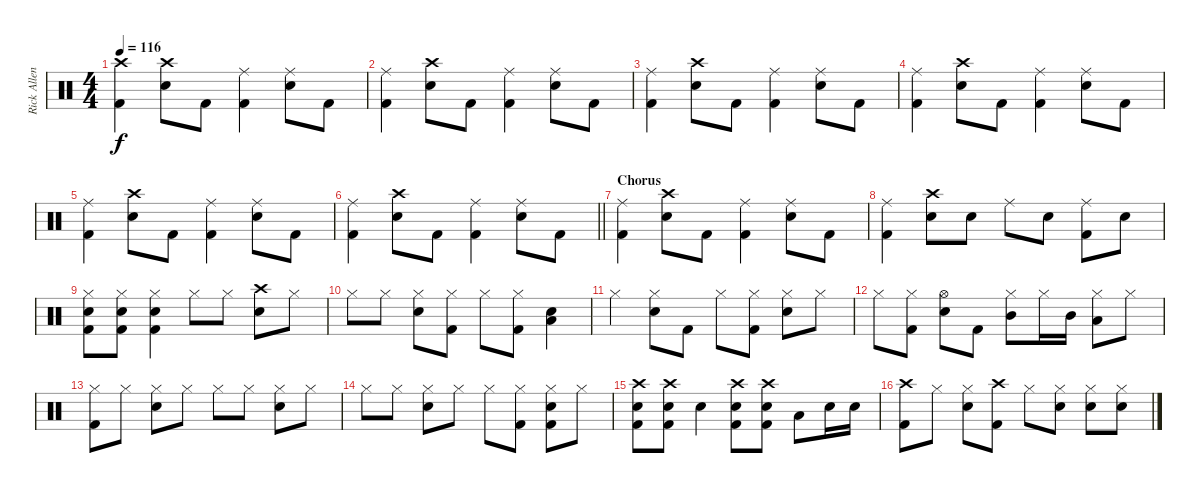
\track ("Rick Allen" "Rick Allen") {instrument percussion}
\staff {score}
\articulation defaults
\ts (4 4)
\tempo 116
\clef neutral
\ks c
("Crash high (hit)" "Kick (hit) 2").4{dy f} ("Crash high (hit)" "Electric Snare (hit)").8 "Kick (hit) 2".8 ("Ride (middle)" "Kick (hit) 2").4 ("Ride (middle)" "Electric Snare (hit)").8 "Kick (hit) 2".8 |
("Ride (middle)" "Kick (hit) 2").4 ("Crash high (hit)" "Electric Snare (hit)").8 "Kick (hit) 2".8 ("Ride (middle)" "Kick (hit) 2").4 ("Ride (middle)" "Electric Snare (hit)").8 "Kick (hit) 2".8 |
("Ride (middle)" "Kick (hit) 2").4 ("Crash high (hit)" "Electric Snare (hit)").8 "Kick (hit) 2".8 ("Ride (middle)" "Kick (hit) 2").4 ("Ride (middle)" "Electric Snare (hit)").8 "Kick (hit) 2".8 |
("Ride (middle)" "Kick (hit) 2").4 ("Crash high (hit)" "Electric Snare (hit)").8 "Kick (hit) 2".8 ("Ride (middle)" "Kick (hit) 2").4 ("Ride (middle)" "Electric Snare (hit)").8 "Kick (hit) 2".8 |
("Ride (middle)" "Kick (hit) 2").4 ("Crash high (hit)" "Electric Snare (hit)").8 "Kick (hit) 2".8 ("Ride (middle)" "Kick (hit) 2").4 ("Ride (middle)" "Electric Snare (hit)").8 "Kick (hit) 2".8 |
\barLineRight lightlight
("Ride (middle)" "Kick (hit) 2").4 ("Crash high (hit)" "Electric Snare (hit)").8 "Kick (hit) 2".8 ("Ride (middle)" "Kick (hit) 2").4 ("Ride (middle)" "Electric Snare (hit)").8 "Kick (hit) 2".8 |
\section ("" "Chorus")
("Ride (middle)" "Kick (hit) 2").4 ("Crash high (hit)" "Electric Snare (hit)").8 "Kick (hit) 2".8 ("Ride (middle)" "Kick (hit) 2").4 ("Ride (middle)" "Electric Snare (hit)").8 "Kick (hit) 2".8 |
("Ride (middle)" "Kick (hit) 2").4 ("Crash high (hit)" "Electric Snare (hit)").8 "Electric Snare (hit)".8 "Ride (middle)".8 "Electric Snare (hit)".8 ("Ride (middle)" "Kick (hit) 2").8 "Electric Snare (hit)".8 |
("Hi-Hat (closed)" "Electric Snare (hit)" "Kick (hit) 2").8 ("Hi-Hat (closed)" "Electric Snare (hit)" "Kick (hit) 2").8 ("Hi-Hat (closed)" "Electric Snare (hit)" "Kick (hit) 2").4 "Hi-Hat (closed)".8 "Hi-Hat (closed)".8 ("Crash high (hit)" "Electric Snare (hit)").8 "Hi-Hat (closed)".8 |
"Hi-Hat (closed)".8 "Hi-Hat (closed)".8 ("Hi-Hat (closed)" "Electric Snare (hit)").8 ("Hi-Hat (closed)" "Kick (hit) 2").8 "Hi-Hat (closed)".8 ("Hi-Hat (closed)" "Kick (hit) 2").8 ("Low Tom (hit)" "Electric Snare (hit)").4 |
"Hi-Hat (closed)".4 ("Hi-Hat (closed)" "Electric Snare (hit)").8 "Kick (hit) 2".8 "Hi-Hat (closed)".8 ("Hi-Hat (closed)" "Kick (hit) 2").8 ("Hi-Hat (closed)" "Electric Snare (hit)").8 "Hi-Hat (closed)".8 |
"Hi-Hat (closed)".8 ("Hi-Hat (closed)" "Kick (hit) 2").8 ("Hi-Hat (open)" "Electric Snare (hit)").8 "Kick (hit) 2".8 ("Hi-Hat (closed)" "Mid Tom (hit)").8 "Hi-Hat (closed)".16 "Mid Tom (hit)".16 ("Hi-Hat (closed)" "Low Tom (hit)").8 "Hi-Hat (closed)".8 |
("Hi-Hat (closed)" "Kick (hit) 2").8 "Hi-Hat (closed)".8 ("Hi-Hat (closed)" "Electric Snare (hit)").8 "Hi-Hat (closed)".8 "Hi-Hat (closed)".8 "Hi-Hat (closed)".8 ("Hi-Hat (closed)" "Electric Snare (hit)").8 "Hi-Hat (closed)".8 |
"Hi-Hat (closed)".8 "Hi-Hat (closed)".8 ("Hi-Hat (closed)" "Electric Snare (hit)").8 "Hi-Hat (closed)".8 "Hi-Hat (closed)".8 ("Hi-Hat (closed)" "Kick (hit) 2").8 ("Hi-Hat (closed)" "Electric Snare (hit)" "Kick (hit) 2").8 "Hi-Hat (closed)".8 |
("Crash high (hit)" "Electric Snare (hit)" "Kick (hit) 2").8 ("Crash high (hit)" "Electric Snare (hit)" "Kick (hit) 2").8 "Electric Snare (hit)".4 ("Crash high (hit)" "Electric Snare (hit)" "Kick (hit) 2").8 ("Crash high (hit)" "Electric Snare (hit)" "Kick (hit) 2").8 "Low Tom (hit)".8 "Electric Snare (hit)".16 "Electric Snare (hit)".16 |
("Crash high (hit)" "Kick (hit) 2").8 "Hi-Hat (closed)".8 ("Hi-Hat (closed)" "Electric Snare (hit)").8 ("Crash high (hit)" "Kick (hit) 2").8 "Hi-Hat (closed)".8 ("Hi-Hat (closed)" "Electric Snare (hit)").8 ("Hi-Hat (closed)" "Electric Snare (hit)").8 ("Hi-Hat (closed)" "Electric Snare (hit)").8
